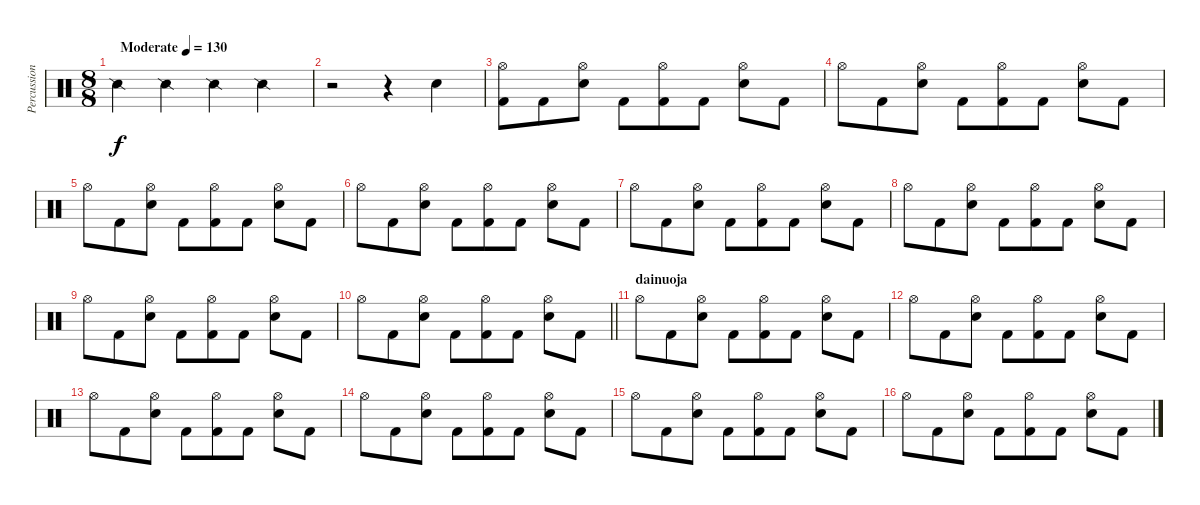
\track ("Percussion" "Percussion") {instrument percussion}
\staff {score}
\articulation defaults
\ts (8 8)
\tempo (130 "Moderate")
\clef neutral
\ks c "Snare (side stick) 2".4{dy f} "Snare (side stick) 2".4 "Snare (side stick) 2".4 "Snare (side stick) 2".4
|
r.2 r.4 "Snare (hit) 2".4 |
("Hi-Hat (open)" "Kick (hit) 2").8 "Kick (hit) 2".8 ("Hi-Hat (open)" "Snare (hit) 2").8 "Kick (hit) 2".8 ("Hi-Hat (open)" "Kick (hit) 2").8 "Kick (hit) 2".8 ("Hi-Hat (open)" "Snare (hit) 2").8 "Kick (hit) 2".8 |
"Hi-Hat (open)".8 "Kick (hit) 2".8 ("Hi-Hat (open)" "Snare (hit) 2").8 "Kick (hit) 2".8 ("Hi-Hat (open)" "Kick (hit) 2").8 "Kick (hit) 2".8 ("Hi-Hat (open)" "Snare (hit) 2").8 "Kick (hit) 2".8 |
"Hi-Hat (open)".8 "Kick (hit) 2".8 ("Hi-Hat (open)" "Snare (hit) 2").8 "Kick (hit) 2".8 ("Hi-Hat (open)" "Kick (hit) 2").8 "Kick (hit) 2".8 ("Hi-Hat (open)" "Snare (hit) 2").8 "Kick (hit) 2".8 |
"Hi-Hat (open)".8 "Kick (hit) 2".8 ("Hi-Hat (open)" "Snare (hit) 2").8 "Kick (hit) 2".8 ("Hi-Hat (open)" "Kick (hit) 2").8 "Kick (hit) 2".8 ("Hi-Hat (open)" "Snare (hit) 2").8 "Kick (hit) 2".8 |
"Hi-Hat (open)".8 "Kick (hit) 2".8 ("Hi-Hat (open)" "Snare (hit) 2").8 "Kick (hit) 2".8 ("Hi-Hat (open)" "Kick (hit) 2").8 "Kick (hit) 2".8 ("Hi-Hat (open)" "Snare (hit) 2").8 "Kick (hit) 2".8 |
"Hi-Hat (open)".8 "Kick (hit) 2".8 ("Hi-Hat (open)" "Snare (hit) 2").8 "Kick (hit) 2".8 ("Hi-Hat (open)" "Kick (hit) 2").8 "Kick (hit) 2".8 ("Hi-Hat (open)" "Snare (hit) 2").8 "Kick (hit) 2".8 |
"Hi-Hat (open)".8 "Kick (hit) 2".8 ("Hi-Hat (open)" "Snare (hit) 2").8 "Kick (hit) 2".8 ("Hi-Hat (open)" "Kick (hit) 2").8 "Kick (hit) 2".8 ("Hi-Hat (open)" "Snare (hit) 2").8 "Kick (hit) 2".8 |
\barLineRight lightlight "Hi-Hat (open)".8 "Kick (hit) 2".8
("Hi-Hat (open)" "Snare (hit) 2").8 "Kick (hit) 2".8 ("Hi-Hat (open)" "Kick (hit) 2").8 "Kick (hit) 2".8 ("Hi-Hat (open)" "Snare (hit) 2").8 "Kick (hit) 2".8 |
\section ("" "dainuoja")
"Hi-Hat (open)".8 "Kick (hit) 2".8 ("Hi-Hat (open)" "Snare (hit) 2").8 "Kick (hit) 2".8 ("Hi-Hat (open)" "Kick (hit) 2").8 "Kick (hit) 2".8 ("Hi-Hat (open)" "Snare (hit) 2").8 "Kick (hit) 2".8 |
"Hi-Hat (open)".8 "Kick (hit) 2".8 ("Hi-Hat (open)" "Snare (hit) 2").8 "Kick (hit) 2".8 ("Hi-Hat (open)" "Kick (hit) 2").8 "Kick (hit) 2".8 ("Hi-Hat (open)" "Snare (hit) 2").8 "Kick (hit) 2".8 |
"Hi-Hat (open)".8 "Kick (hit) 2".8 ("Hi-Hat (open)" "Snare (hit) 2").8 "Kick (hit) 2".8 ("Hi-Hat (open)" "Kick (hit) 2").8 "Kick (hit) 2".8 ("Hi-Hat (open)" "Snare (hit) 2").8 "Kick (hit) 2".8 |
"Hi-Hat (open)".8 "Kick (hit) 2".8 ("Hi-Hat (open)" "Snare (hit) 2").8 "Kick (hit) 2".8 ("Hi-Hat (open)" "Kick (hit) 2").8 "Kick (hit) 2".8 ("Hi-Hat (open)" "Snare (hit) 2").8 "Kick (hit) 2".8 |
"Hi-Hat (open)".8 "Kick (hit) 2".8 ("Hi-Hat (open)" "Snare (hit) 2").8 "Kick (hit) 2".8 ("Hi-Hat (open)" "Kick (hit) 2").8 "Kick (hit) 2".8 ("Hi-Hat (open)" "Snare (hit) 2").8 "Kick (hit) 2".8 |
"Hi-Hat (open)".8 "Kick (hit) 2".8 ("Hi-Hat (open)" "Snare (hit) 2").8 "Kick (hit) 2".8 ("Hi-Hat (open)" "Kick (hit) 2").8 "Kick (hit) 2".8 ("Hi-Hat (open)" "Snare (hit) 2").8 "Kick (hit) 2".8
